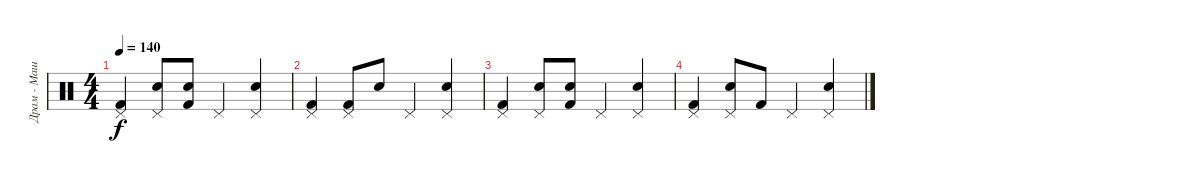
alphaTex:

\track ("Драм - Машина" "Драм - Маш") {instrument percussion}
\staff {score}
\articulation defaults
\ts (4 4)
\tempo 140
\clef neutral
\ks c
("Kick (hit) 2" "Pedal Hi-Hat (hit)").4{dy f} ("Electric Snare (hit)" "Pedal Hi-Hat (hit)").8 ("Kick (hit) 2" "Electric Snare (hit)").8 "Pedal Hi-Hat (hit)".4 ("Electric Snare (hit)" "Pedal Hi-Hat (hit)").4 |
("Kick (hit) 2" "Pedal Hi-Hat (hit)").4 ("Pedal Hi-Hat (hit)" "Kick (hit) 2").8 "Electric Snare (hit)".8 "Pedal Hi-Hat (hit)".4 ("Electric Snare (hit)" "Pedal Hi-Hat (hit)").4 |
("Kick (hit) 2" "Pedal Hi-Hat (hit)").4 ("Electric Snare (hit)" "Pedal Hi-Hat (hit)").8 ("Kick (hit) 2" "Electric Snare (hit)").8 "Pedal Hi-Hat (hit)".4 ("Electric Snare (hit)" "Pedal Hi-Hat (hit)").4 |
("Kick (hit) 2" "Pedal Hi-Hat (hit)").4{volume 0} ("Pedal Hi-Hat (hit)" "Electric Snare (hit)").8 "Kick (hit) 2".8 "Pedal Hi-Hat (hit)".4 ("Electric Snare (hit)" "Pedal Hi-Hat (hit)").4
